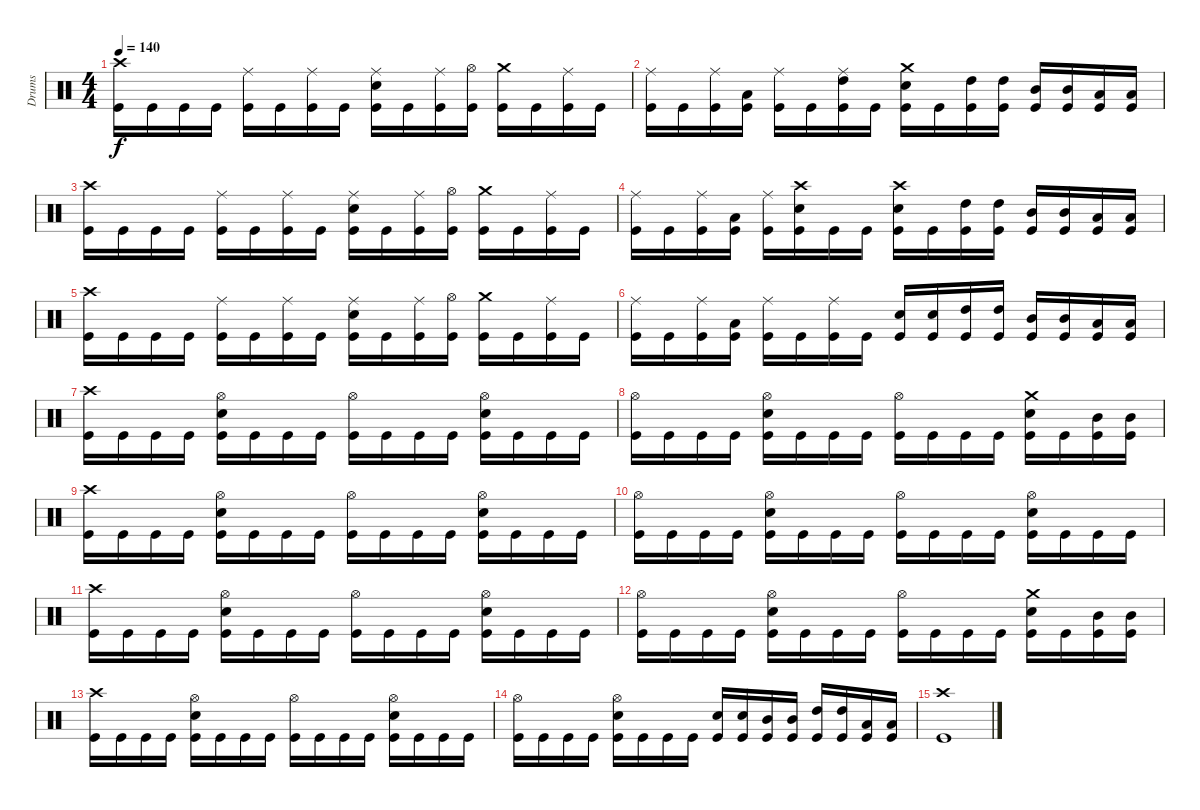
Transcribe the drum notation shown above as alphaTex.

\track ("Drums" "Drums") {instrument percussion}
\staff {score}
\articulation defaults
\ts (4 4)
\tempo 140
\clef neutral
\ks c
("Crash high (hit)" "Kick (hit)").16{dy f} "Kick (hit)".16 "Kick (hit)".16 "Kick (hit)".16 ("Ride (middle)" "Kick (hit)").16 "Kick (hit)".16 ("Ride (middle)" "Kick (hit)").16 "Kick (hit)".16 ("Ride (middle)" "Snare (hit) 2" "Kick (hit)").16 "Kick (hit)".16 ("Ride (middle)" "Kick (hit)").16 ("Hi-Hat (open)" "Kick (hit)").16 ("Crash medium (hit)" "Kick (hit)").16 "Kick (hit)".16 ("Ride (middle)" "Kick (hit)").16 "Kick (hit)".16 |
("Ride (middle)" "Kick (hit)").16 "Kick (hit)".16 ("Ride (middle)" "Kick (hit)").16 ("Low Tom (hit)" "Kick (hit)").16 ("Ride (middle)" "Kick (hit)").16 "Kick (hit)".16 ("Ride (middle)" "High Tom (hit)" "Kick (hit)").16 "Kick (hit)".16 ("Crash medium (hit)" "Snare (hit) 2" "Kick (hit)").16 "Kick (hit)".16 ("High Tom (hit)" "Kick (hit)").16 ("High Tom (hit)" "Kick (hit)").16 ("Mid Tom (hit)" "Kick (hit)").16 ("Mid Tom (hit)" "Kick (hit)").16 ("Low Tom (hit)" "Kick (hit)").16 ("Low Tom (hit)" "Kick (hit)").16 |
("Crash high (hit)" "Kick (hit)").16 "Kick (hit)".16 "Kick (hit)".16 "Kick (hit)".16 ("Ride (middle)" "Kick (hit)").16 "Kick (hit)".16 ("Ride (middle)" "Kick (hit)").16 "Kick (hit)".16 ("Ride (middle)" "Snare (hit) 2" "Kick (hit)").16 "Kick (hit)".16 ("Ride (middle)" "Kick (hit)").16 ("Hi-Hat (open)" "Kick (hit)").16 ("Crash medium (hit)" "Kick (hit)").16 "Kick (hit)".16 ("Ride (middle)" "Kick (hit)").16 "Kick (hit)".16 |
("Ride (middle)" "Kick (hit)").16 "Kick (hit)".16 ("Ride (middle)" "Kick (hit)").16 ("Low Tom (hit)" "Kick (hit)").16 ("Ride (middle)" "Kick (hit)").16 ("Crash high (hit)" "Snare (hit) 2" "Kick (hit)").16 "Kick (hit)".16 "Kick (hit)".16 ("Crash high (hit)" "Snare (hit) 2" "Kick (hit)").16 "Kick (hit)".16 ("High Tom (hit)" "Kick (hit)").16 ("High Tom (hit)" "Kick (hit)").16 ("Mid Tom (hit)" "Kick (hit)").16 ("Mid Tom (hit)" "Kick (hit)").16 ("Low Tom (hit)" "Kick (hit)").16 ("Low Tom (hit)" "Kick (hit)").16 |
("Crash high (hit)" "Kick (hit)").16 "Kick (hit)".16 "Kick (hit)".16 "Kick (hit)".16 ("Ride (middle)" "Kick (hit)").16 "Kick (hit)".16 ("Ride (middle)" "Kick (hit)").16 "Kick (hit)".16 ("Ride (middle)" "Snare (hit) 2" "Kick (hit)").16 "Kick (hit)".16 ("Ride (middle)" "Kick (hit)").16 ("Hi-Hat (open)" "Kick (hit)").16 ("Crash medium (hit)" "Kick (hit)").16 "Kick (hit)".16 ("Ride (middle)" "Kick (hit)").16 "Kick (hit)".16 |
("Ride (middle)" "Kick (hit)").16 "Kick (hit)".16 ("Ride (middle)" "Kick (hit)").16 ("Low Tom (hit)" "Kick (hit)").16 ("Ride (middle)" "Kick (hit)").16 "Kick (hit)".16 ("Ride (middle)" "Kick (hit)").16 "Kick (hit)".16 ("Snare (hit) 2" "Kick (hit)").16 ("Snare (hit) 2" "Kick (hit)").16 ("High Tom (hit)" "Kick (hit)").16 ("High Tom (hit)" "Kick (hit)").16 ("Mid Tom (hit)" "Kick (hit)").16 ("Mid Tom (hit)" "Kick (hit)").16 ("Low Tom (hit)" "Kick (hit)").16 ("Low Tom (hit)" "Kick (hit)").16 |
("Crash high (hit)" "Kick (hit)").16 "Kick (hit)".16 "Kick (hit)".16 "Kick (hit)".16 ("Hi-Hat (open)" "Snare (hit) 2" "Kick (hit)").16 "Kick (hit)".16 "Kick (hit)".16 "Kick (hit)".16 ("Hi-Hat (open)" "Kick (hit)").16 "Kick (hit)".16 "Kick (hit)".16 "Kick (hit)".16 ("Hi-Hat (open)" "Snare (hit) 2" "Kick (hit)").16 "Kick (hit)".16 "Kick (hit)".16 "Kick (hit)".16 |
("Hi-Hat (open)" "Kick (hit)").16 "Kick (hit)".16 "Kick (hit)".16 "Kick (hit)".16 ("Hi-Hat (open)" "Snare (hit) 2" "Kick (hit)").16 "Kick (hit)".16 "Kick (hit)".16 "Kick (hit)".16 ("Hi-Hat (open)" "Kick (hit)").16 "Kick (hit)".16 "Kick (hit)".16 "Kick (hit)".16 ("Crash medium (hit)" "Snare (hit) 2" "Kick (hit)").16 "Kick (hit)".16 ("Mid Tom (hit)" "Kick (hit)").16 ("Mid Tom (hit)" "Kick (hit)").16 |
("Crash high (hit)" "Kick (hit)").16 "Kick (hit)".16 "Kick (hit)".16 "Kick (hit)".16 ("Hi-Hat (open)" "Snare (hit) 2" "Kick (hit)").16 "Kick (hit)".16 "Kick (hit)".16 "Kick (hit)".16 ("Hi-Hat (open)" "Kick (hit)").16 "Kick (hit)".16 "Kick (hit)".16 "Kick (hit)".16 ("Hi-Hat (open)" "Snare (hit) 2" "Kick (hit)").16 "Kick (hit)".16 "Kick (hit)".16 "Kick (hit)".16 |
("Hi-Hat (open)" "Kick (hit)").16 "Kick (hit)".16 "Kick (hit)".16 "Kick (hit)".16 ("Hi-Hat (open)" "Snare (hit) 2" "Kick (hit)").16 "Kick (hit)".16 "Kick (hit)".16 "Kick (hit)".16 ("Hi-Hat (open)" "Kick (hit)").16 "Kick (hit)".16 "Kick (hit)".16 "Kick (hit)".16 ("Hi-Hat (open)" "Snare (hit) 2" "Kick (hit)").16 "Kick (hit)".16 "Kick (hit)".16 "Kick (hit)".16 |
("Crash high (hit)" "Kick (hit)").16 "Kick (hit)".16 "Kick (hit)".16 "Kick (hit)".16 ("Hi-Hat (open)" "Snare (hit) 2" "Kick (hit)").16 "Kick (hit)".16 "Kick (hit)".16 "Kick (hit)".16 ("Hi-Hat (open)" "Kick (hit)").16 "Kick (hit)".16 "Kick (hit)".16 "Kick (hit)".16 ("Hi-Hat (open)" "Snare (hit) 2" "Kick (hit)").16 "Kick (hit)".16 "Kick (hit)".16 "Kick (hit)".16 |
("Hi-Hat (open)" "Kick (hit)").16 "Kick (hit)".16 "Kick (hit)".16 "Kick (hit)".16 ("Hi-Hat (open)" "Snare (hit) 2" "Kick (hit)").16 "Kick (hit)".16 "Kick (hit)".16 "Kick (hit)".16 ("Hi-Hat (open)" "Kick (hit)").16 "Kick (hit)".16 "Kick (hit)".16 "Kick (hit)".16 ("Crash medium (hit)" "Snare (hit) 2" "Kick (hit)").16 "Kick (hit)".16 ("Mid Tom (hit)" "Kick (hit)").16 ("Mid Tom (hit)" "Kick (hit)").16 |
("Crash high (hit)" "Kick (hit)").16 "Kick (hit)".16 "Kick (hit)".16 "Kick (hit)".16 ("Hi-Hat (open)" "Snare (hit) 2" "Kick (hit)").16 "Kick (hit)".16 "Kick (hit)".16 "Kick (hit)".16 ("Hi-Hat (open)" "Kick (hit)").16 "Kick (hit)".16 "Kick (hit)".16 "Kick (hit)".16 ("Hi-Hat (open)" "Snare (hit) 2" "Kick (hit)").16 "Kick (hit)".16 "Kick (hit)".16 "Kick (hit)".16 |
("Hi-Hat (open)" "Kick (hit)").16 "Kick (hit)".16 "Kick (hit)".16 "Kick (hit)".16 ("Hi-Hat (open)" "Snare (hit) 2" "Kick (hit)").16 "Kick (hit)".16 "Kick (hit)".16 "Kick (hit)".16 ("Snare (hit) 2" "Kick (hit)").16 ("Snare (hit) 2" "Kick (hit)").16 ("Mid Tom (hit)" "Kick (hit)").16 ("Mid Tom (hit)" "Kick (hit)").16 ("High Tom (hit)" "Kick (hit)").16 ("High Tom (hit)" "Kick (hit)").16 ("Low Tom (hit)" "Kick (hit)").16 ("Low Tom (hit)" "Kick (hit)").16 |
("Crash high (hit)" "Kick (hit)").1
